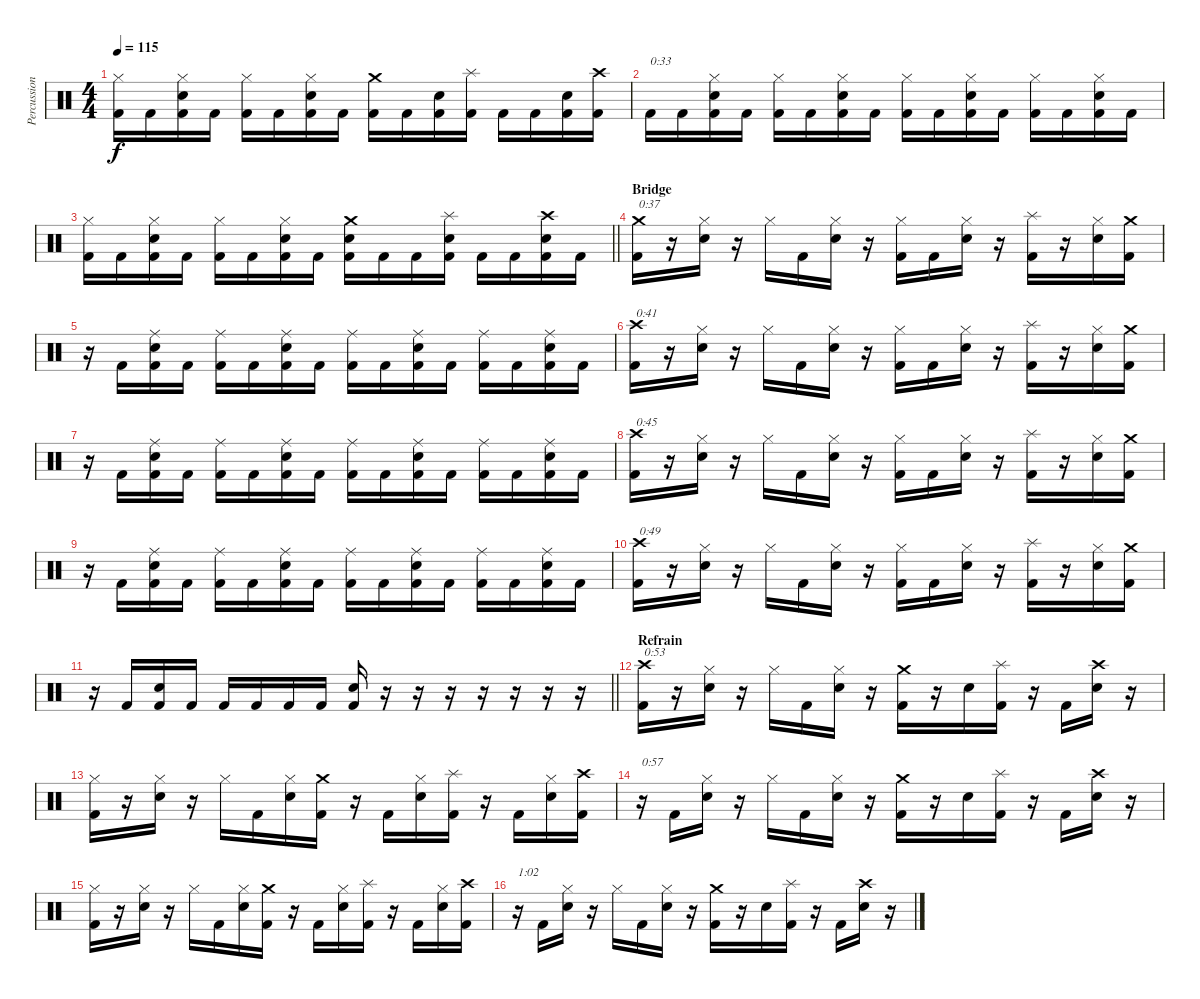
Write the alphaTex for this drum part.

\track ("Percussion" "Percussion") {instrument percussion}
\staff {score}
\articulation defaults
\ts (4 4)
\tempo 115
\clef neutral
\ks c
("Hi-Hat (closed)" "Kick (hit) 2").16{dy f} "Kick (hit) 2".16 ("Hi-Hat (closed)" "Electric Snare (hit)" "Kick (hit) 2").16 "Kick (hit) 2".16 ("Hi-Hat (closed)" "Kick (hit) 2").16 "Kick (hit) 2".16 ("Hi-Hat (closed)" "Electric Snare (hit)" "Kick (hit) 2").16 "Kick (hit) 2".16 ("Crash medium (hit)" "Kick (hit) 2").16 "Kick (hit) 2".16 ("Electric Snare (hit)" "Kick (hit) 2").16 ("Splash (hit)" "Kick (hit) 2").16 "Kick (hit) 2".16 "Kick (hit) 2".16 ("Electric Snare (hit)" "Kick (hit) 2").16 ("Crash high (hit)" "Kick (hit) 2").16 |
"Kick (hit) 2".16{txt "0:33"} "Kick (hit) 2".16 ("Hi-Hat (closed)" "Electric Snare (hit)" "Kick (hit) 2").16 "Kick (hit) 2".16 ("Hi-Hat (closed)" "Kick (hit) 2").16 "Kick (hit) 2".16 ("Hi-Hat (closed)" "Electric Snare (hit)" "Kick (hit) 2").16 "Kick (hit) 2".16 ("Hi-Hat (closed)" "Kick (hit) 2").16 "Kick (hit) 2".16 ("Hi-Hat (closed)" "Electric Snare (hit)" "Kick (hit) 2").16 "Kick (hit) 2".16 ("Hi-Hat (closed)" "Kick (hit) 2").16 "Kick (hit) 2".16 ("Hi-Hat (closed)" "Electric Snare (hit)" "Kick (hit) 2").16 "Kick (hit) 2".16 |
\barLineRight lightlight
("Hi-Hat (closed)" "Kick (hit) 2").16 "Kick (hit) 2".16 ("Hi-Hat (closed)" "Electric Snare (hit)" "Kick (hit) 2").16 "Kick (hit) 2".16 ("Hi-Hat (closed)" "Kick (hit) 2").16 "Kick (hit) 2".16 ("Hi-Hat (closed)" "Electric Snare (hit)" "Kick (hit) 2").16 "Kick (hit) 2".16 ("Crash medium (hit)" "Electric Snare (hit)" "Kick (hit) 2").16 "Kick (hit) 2".16 "Kick (hit) 2".16 ("Splash (hit)" "Electric Snare (hit)" "Kick (hit) 2").16 "Kick (hit) 2".16 "Kick (hit) 2".16 ("Crash high (hit)" "Electric Snare (hit)" "Kick (hit) 2").16 "Kick (hit) 2".16 |
\section ("" "Bridge")
("Crash medium (hit)" "Kick (hit) 2").16{txt "0:37"} r.16 ("Hi-Hat (closed)" "Electric Snare (hit)").16 r.16 "Hi-Hat (closed)".16 "Kick (hit) 2".16 ("Hi-Hat (closed)" "Electric Snare (hit)").16 r.16 ("Hi-Hat (closed)" "Kick (hit) 2").16 "Kick (hit) 2".16 ("Hi-Hat (closed)" "Electric Snare (hit)").16 r.16 ("Splash (hit)" "Kick (hit) 2").16 r.16 ("Hi-Hat (closed)" "Electric Snare (hit)").16 ("Crash medium (hit)" "Kick (hit) 2").16 |
r.16 "Kick (hit) 2".16 ("Ride (middle)" "Electric Snare (hit)" "Kick (hit) 2").16 "Kick (hit) 2".16 ("Ride (middle)" "Kick (hit) 2").16 "Kick (hit) 2".16 ("Ride (middle)" "Electric Snare (hit)" "Kick (hit) 2").16 "Kick (hit) 2".16 ("Ride (middle)" "Kick (hit) 2").16 "Kick (hit) 2".16 ("Ride (middle)" "Electric Snare (hit)" "Kick (hit) 2").16 "Kick (hit) 2".16 ("Ride (middle)" "Kick (hit) 2").16 "Kick (hit) 2".16 ("Ride (middle)" "Electric Snare (hit)" "Kick (hit) 2").16 "Kick (hit) 2".16 |
("Crash high (hit)" "Kick (hit) 2").16{txt "0:41"} r.16 ("Hi-Hat (closed)" "Electric Snare (hit)").16 r.16 "Hi-Hat (closed)".16 "Kick (hit) 2".16 ("Hi-Hat (closed)" "Electric Snare (hit)").16 r.16 ("Hi-Hat (closed)" "Kick (hit) 2").16 "Kick (hit) 2".16 ("Hi-Hat (closed)" "Electric Snare (hit)").16 r.16 ("Splash (hit)" "Kick (hit) 2").16 r.16 ("Hi-Hat (closed)" "Electric Snare (hit)").16 ("Crash medium (hit)" "Kick (hit) 2").16 |
r.16 "Kick (hit) 2".16 ("Ride (middle)" "Electric Snare (hit)" "Kick (hit) 2").16 "Kick (hit) 2".16 ("Ride (middle)" "Kick (hit) 2").16 "Kick (hit) 2".16 ("Ride (middle)" "Electric Snare (hit)" "Kick (hit) 2").16 "Kick (hit) 2".16 ("Ride (middle)" "Kick (hit) 2").16 "Kick (hit) 2".16 ("Ride (middle)" "Electric Snare (hit)" "Kick (hit) 2").16 "Kick (hit) 2".16 ("Ride (middle)" "Kick (hit) 2").16 "Kick (hit) 2".16 ("Ride (middle)" "Electric Snare (hit)" "Kick (hit) 2").16 "Kick (hit) 2".16 |
("Crash high (hit)" "Kick (hit) 2").16{txt "0:45"} r.16 ("Hi-Hat (closed)" "Electric Snare (hit)").16 r.16 "Hi-Hat (closed)".16 "Kick (hit) 2".16 ("Hi-Hat (closed)" "Electric Snare (hit)").16 r.16 ("Hi-Hat (closed)" "Kick (hit) 2").16 "Kick (hit) 2".16 ("Hi-Hat (closed)" "Electric Snare (hit)").16 r.16 ("Splash (hit)" "Kick (hit) 2").16 r.16 ("Hi-Hat (closed)" "Electric Snare (hit)").16 ("Crash medium (hit)" "Kick (hit) 2").16 |
r.16 "Kick (hit) 2".16 ("Ride (middle)" "Electric Snare (hit)" "Kick (hit) 2").16 "Kick (hit) 2".16 ("Ride (middle)" "Kick (hit) 2").16 "Kick (hit) 2".16 ("Ride (middle)" "Electric Snare (hit)" "Kick (hit) 2").16 "Kick (hit) 2".16 ("Ride (middle)" "Kick (hit) 2").16 "Kick (hit) 2".16 ("Ride (middle)" "Electric Snare (hit)" "Kick (hit) 2").16 "Kick (hit) 2".16 ("Ride (middle)" "Kick (hit) 2").16 "Kick (hit) 2".16 ("Ride (middle)" "Electric Snare (hit)" "Kick (hit) 2").16 "Kick (hit) 2".16 |
("Crash high (hit)" "Kick (hit) 2").16{txt "0:49"} r.16 ("Hi-Hat (closed)" "Electric Snare (hit)").16 r.16 "Hi-Hat (closed)".16 "Kick (hit) 2".16 ("Hi-Hat (closed)" "Electric Snare (hit)").16 r.16 ("Hi-Hat (closed)" "Kick (hit) 2").16 "Kick (hit) 2".16 ("Hi-Hat (closed)" "Electric Snare (hit)").16 r.16 ("Splash (hit)" "Kick (hit) 2").16 r.16 ("Hi-Hat (closed)" "Electric Snare (hit)").16 ("Crash medium (hit)" "Kick (hit) 2").16 |
\barLineRight lightlight
r.16 "Kick (hit) 2".16 ("Electric Snare (hit)" "Kick (hit) 2").16 "Kick (hit) 2".16 "Kick (hit) 2".16 "Kick (hit) 2".16 "Kick (hit) 2".16 "Kick (hit) 2".16 ("Electric Snare (hit)" "Kick (hit) 2").16 r.16 r.16 r.16 r.16 r.16 r.16 r.16 |
\section ("" "Refrain")
("Crash high (hit)" "Kick (hit) 2").16{txt "0:53"} r.16 ("Hi-Hat (closed)" "Electric Snare (hit)").16 r.16 "Hi-Hat (closed)".16 "Kick (hit) 2".16 ("Hi-Hat (closed)" "Electric Snare (hit)").16 r.16 ("Crash medium (hit)" "Kick (hit) 2").16 r.16 "Electric Snare (hit)".16 ("Splash (hit)" "Kick (hit) 2").16 r.16 "Kick (hit) 2".16 ("Crash high (hit)" "Electric Snare (hit)").16 r.16 |
("Hi-Hat (closed)" "Kick (hit) 2").16 r.16 ("Hi-Hat (closed)" "Electric Snare (hit)").16 r.16 "Hi-Hat (closed)".16 "Kick (hit) 2".16 ("Hi-Hat (closed)" "Electric Snare (hit)").16 ("Crash medium (hit)" "Kick (hit) 2").16 r.16 "Kick (hit) 2".16 ("Hi-Hat (closed)" "Electric Snare (hit)").16 ("Splash (hit)" "Kick (hit) 2").16 r.16 "Kick (hit) 2".16 ("Hi-Hat (closed)" "Electric Snare (hit)").16 ("Crash high (hit)" "Kick (hit) 2").16 |
r.16{txt "0:57"} "Kick (hit) 2".16 ("Hi-Hat (closed)" "Electric Snare (hit)").16 r.16 "Hi-Hat (closed)".16 "Kick (hit) 2".16 ("Hi-Hat (closed)" "Electric Snare (hit)").16 r.16 ("Crash medium (hit)" "Kick (hit) 2").16 r.16 "Electric Snare (hit)".16 ("Splash (hit)" "Kick (hit) 2").16 r.16 "Kick (hit) 2".16 ("Crash high (hit)" "Electric Snare (hit)").16 r.16 |
("Hi-Hat (closed)" "Kick (hit) 2").16 r.16 ("Hi-Hat (closed)" "Electric Snare (hit)").16 r.16 "Hi-Hat (closed)".16 "Kick (hit) 2".16 ("Hi-Hat (closed)" "Electric Snare (hit)").16 ("Crash medium (hit)" "Kick (hit) 2").16 r.16 "Kick (hit) 2".16 ("Hi-Hat (closed)" "Electric Snare (hit)").16 ("Splash (hit)" "Kick (hit) 2").16 r.16 "Kick (hit) 2".16 ("Hi-Hat (closed)" "Electric Snare (hit)").16 ("Crash high (hit)" "Kick (hit) 2").16 |
r.16{txt "1:02"} "Kick (hit) 2".16 ("Hi-Hat (closed)" "Electric Snare (hit)").16 r.16 "Hi-Hat (closed)".16 "Kick (hit) 2".16 ("Hi-Hat (closed)" "Electric Snare (hit)").16 r.16 ("Crash medium (hit)" "Kick (hit) 2").16 r.16 "Electric Snare (hit)".16 ("Splash (hit)" "Kick (hit) 2").16 r.16 "Kick (hit) 2".16 ("Crash high (hit)" "Electric Snare (hit)").16 r.16
